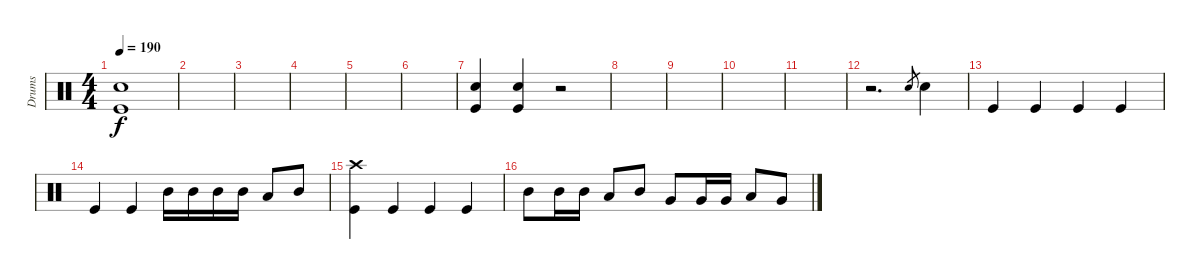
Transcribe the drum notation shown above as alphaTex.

\track ("Drums" "Drums") {instrument percussion}
\staff {score}
\articulation defaults
\ts (4 4)
\tempo 190
\clef neutral
\ks c
("Snare (hit) 2" "Kick (hit)").1{dy f} |
|
|
|
|
|
("Snare (hit) 2" "Kick (hit)").4 ("Snare (hit) 2" "Kick (hit)").4 r.2 |
|
|
|
|
r.2{d} "Snare (hit) 2".8{gr} "Snare (hit) 2".4 |
"Kick (hit)".4 "Kick (hit)".4 "Kick (hit)".4 "Kick (hit)".4 |
"Kick (hit)".4 "Kick (hit)".4 "Mid Tom (hit)".16 "Mid Tom (hit)".16 "Mid Tom (hit)".16 "Mid Tom (hit)".16 "Low Tom (hit)".8 "Mid Tom (hit)".8 |
("Crash high (hit)" "Kick (hit)").4 "Kick (hit)".4 "Kick (hit)".4 "Kick (hit)".4 |
"Mid Tom (hit)".8 "Mid Tom (hit)".16 "Mid Tom (hit)".16 "Low Tom (hit)".8 "Mid Tom (hit)".8 "Very Low Tom (hit)".8 "Very Low Tom (hit)".16 "Very Low Tom (hit)".16 "Low Floor Tom (hit)".8 "Very Low Tom (hit)".8
